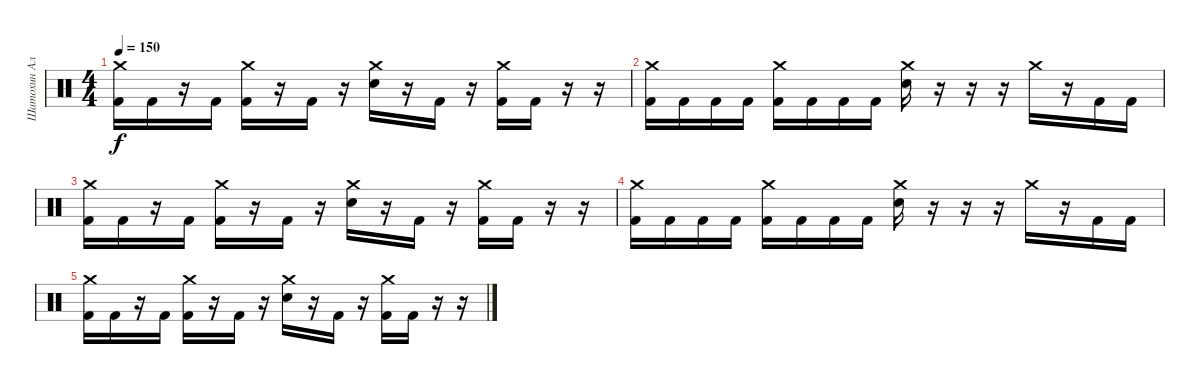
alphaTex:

\track ("Шатохин Алексей" "Шатохин Ал") {instrument percussion}
\staff {score}
\articulation defaults
\ts (4 4)
\tempo 150
\clef neutral
\ks c
("Crash medium (hit)" "Kick (hit) 2").16{dy f} "Kick (hit) 2".16 r.16 "Kick (hit) 2".16 ("Crash medium (hit)" "Kick (hit) 2").16 r.16 "Kick (hit) 2".16 r.16 ("Crash medium (hit)" "Electric Snare (hit)").16 r.16 "Kick (hit) 2".16 r.16 ("Crash medium (hit)" "Kick (hit) 2").16 "Kick (hit) 2".16 r.16 r.16 |
("Crash medium (hit)" "Kick (hit) 2").16 "Kick (hit) 2".16 "Kick (hit) 2".16 "Kick (hit) 2".16 ("Crash medium (hit)" "Kick (hit) 2").16 "Kick (hit) 2".16 "Kick (hit) 2".16 "Kick (hit) 2".16 ("Crash medium (hit)" "Electric Snare (hit)").16 r.16 r.16 r.16 "Crash medium (hit)".16 r.16 "Kick (hit) 2".16 "Kick (hit) 2".16 |
("Crash medium (hit)" "Kick (hit) 2").16 "Kick (hit) 2".16 r.16 "Kick (hit) 2".16 ("Crash medium (hit)" "Kick (hit) 2").16 r.16 "Kick (hit) 2".16 r.16 ("Crash medium (hit)" "Electric Snare (hit)").16 r.16 "Kick (hit) 2".16 r.16 ("Crash medium (hit)" "Kick (hit) 2").16 "Kick (hit) 2".16 r.16 r.16 |
("Crash medium (hit)" "Kick (hit) 2").16 "Kick (hit) 2".16 "Kick (hit) 2".16 "Kick (hit) 2".16 ("Crash medium (hit)" "Kick (hit) 2").16 "Kick (hit) 2".16 "Kick (hit) 2".16 "Kick (hit) 2".16 ("Crash medium (hit)" "Electric Snare (hit)").16 r.16 r.16 r.16 "Crash medium (hit)".16 r.16 "Kick (hit) 2".16 "Kick (hit) 2".16 |
("Crash medium (hit)" "Kick (hit) 2").16 "Kick (hit) 2".16 r.16 "Kick (hit) 2".16 ("Crash medium (hit)" "Kick (hit) 2").16 r.16 "Kick (hit) 2".16 r.16 ("Crash medium (hit)" "Electric Snare (hit)").16 r.16 "Kick (hit) 2".16 r.16 ("Crash medium (hit)" "Kick (hit) 2").16 "Kick (hit) 2".16 r.16 r.16
